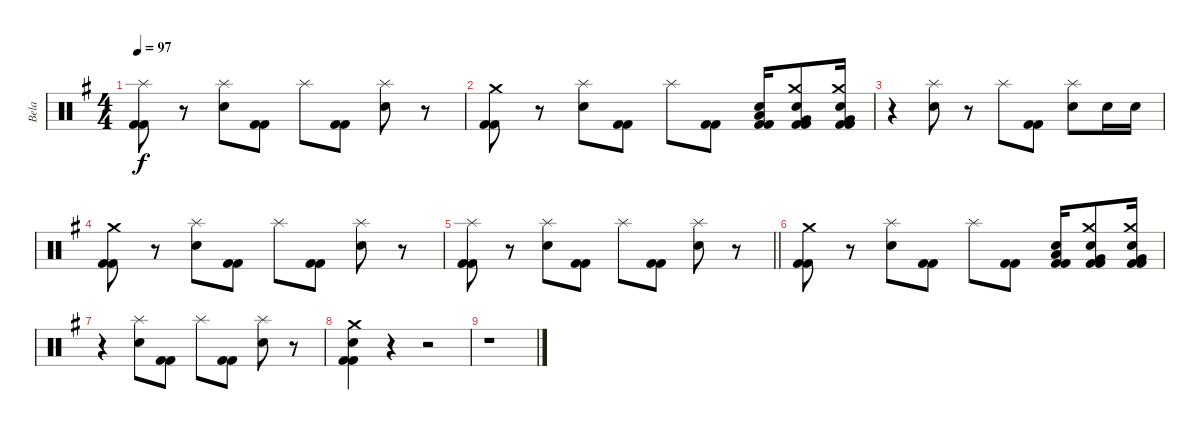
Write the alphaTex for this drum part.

\track ("Bela" "Bela") {instrument percussion}
\staff {score}
\articulation defaults
\ts (4 4)
\tempo 97
\clef neutral
\ks g
("Splash (hit)" "Kick (hit) 2" "Kick (hit) 2").8{dy f} r.8 ("Splash (hit)" "Snare (hit) 2").8 ("Kick (hit) 2" "Kick (hit) 2").8 "Splash (hit)".8 ("Kick (hit) 2" "Kick (hit) 2").8 ("Splash (hit)" "Snare (hit) 2").8 r.8 |
("Crash medium (hit)" "Kick (hit) 2" "Kick (hit) 2").8 r.8 ("Splash (hit)" "Snare (hit) 2").8 ("Kick (hit) 2" "Kick (hit) 2").8 "Splash (hit)".8 ("Kick (hit) 2" "Kick (hit) 2").8 ("Low Floor Tom (hit)" "Electric Snare (hit)" "Kick (hit) 2" "Kick (hit) 2").16 ("Crash medium (hit)" "Very Low Tom (hit)" "Electric Snare (hit)" "Kick (hit) 2" "Kick (hit) 2").8 ("Crash medium (hit)" "Very Low Tom (hit)" "Electric Snare (hit)" "Kick (hit) 2" "Kick (hit) 2").16 |
r.4 ("Splash (hit)" "Snare (hit) 2").8 r.8 "Splash (hit)".8 ("Kick (hit) 2" "Kick (hit) 2").8 ("Splash (hit)" "Snare (hit) 2").8 "Snare (hit) 2".16 "Snare (hit) 2".16 |
("Crash medium (hit)" "Kick (hit) 2" "Kick (hit) 2").8 r.8 ("Splash (hit)" "Snare (hit) 2").8 ("Kick (hit) 2" "Kick (hit) 2").8 "Splash (hit)".8 ("Kick (hit) 2" "Kick (hit) 2").8 ("Splash (hit)" "Snare (hit) 2").8 r.8 |
\barLineRight lightlight
("Splash (hit)" "Kick (hit) 2" "Kick (hit) 2").8 r.8 ("Splash (hit)" "Snare (hit) 2").8 ("Kick (hit) 2" "Kick (hit) 2").8 "Splash (hit)".8 ("Kick (hit) 2" "Kick (hit) 2").8 ("Splash (hit)" "Snare (hit) 2").8 r.8 |
("Crash medium (hit)" "Kick (hit) 2" "Kick (hit) 2").8 r.8 ("Splash (hit)" "Snare (hit) 2").8 ("Kick (hit) 2" "Kick (hit) 2").8 "Splash (hit)".8 ("Kick (hit) 2" "Kick (hit) 2").8 ("Low Floor Tom (hit)" "Electric Snare (hit)" "Kick (hit) 2" "Kick (hit) 2").16 ("Crash medium (hit)" "Very Low Tom (hit)" "Electric Snare (hit)" "Kick (hit) 2" "Kick (hit) 2").8 ("Crash medium (hit)" "Very Low Tom (hit)" "Electric Snare (hit)" "Kick (hit) 2" "Kick (hit) 2").16 |
r.4 ("Splash (hit)" "Snare (hit) 2").8 ("Kick (hit) 2" "Kick (hit) 2").8 "Splash (hit)".8 ("Kick (hit) 2" "Kick (hit) 2").8 ("Splash (hit)" "Snare (hit) 2").8 r.8 |
("Crash medium (hit)" "Snare (hit) 2" "Kick (hit) 2" "Kick (hit) 2").4 r.4 r.2 |
r.1
